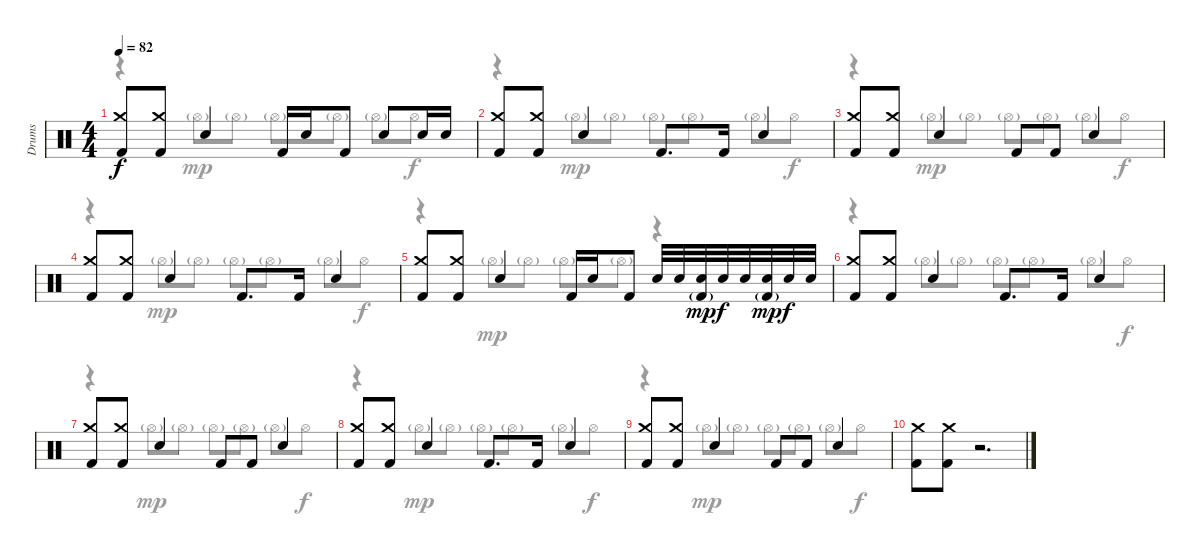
\track ("Drums" "Drums") {instrument percussion}
\staff {score}
\articulation defaults
\voice
\ts (4 4)
\tempo 82
\clef neutral
\ks c
("Crash medium (hit)" "Kick (hit) 2").8{dy f} ("Crash medium (hit)" "Kick (hit) 2").8 "Snare (hit) 2".4 "Kick (hit) 2".16 "Snare (hit) 2".16 "Kick (hit) 2".8 "Snare (hit) 2".8 "Snare (hit) 2".16 "Snare (hit) 2".16 |
("Crash medium (hit)" "Kick (hit) 2").8 ("Crash medium (hit)" "Kick (hit) 2").8 "Snare (hit) 2".4 "Kick (hit) 2".8{d} "Kick (hit) 2".16 "Snare (hit) 2".4 |
("Crash medium (hit)" "Kick (hit) 2").8 ("Crash medium (hit)" "Kick (hit) 2").8 "Snare (hit) 2".4 "Kick (hit) 2".8 "Kick (hit) 2".8 "Snare (hit) 2".4 |
("Crash medium (hit)" "Kick (hit) 2").8 ("Crash medium (hit)" "Kick (hit) 2").8 "Snare (hit) 2".4 "Kick (hit) 2".8{d} "Kick (hit) 2".16 "Snare (hit) 2".4 |
("Crash medium (hit)" "Kick (hit) 2").8 ("Crash medium (hit)" "Kick (hit) 2").8 "Snare (hit) 2".4 "Kick (hit) 2".16 "Snare (hit) 2".16 "Kick (hit) 2".8 "Snare (hit) 2".32 "Snare (hit) 2".32 ("Snare (hit) 2" "Kick (hit) 2"{g}).32{dy mp} "Snare (hit) 2".32{dy f} "Snare (hit) 2".32 ("Snare (hit) 2" "Kick (hit) 2"{g}).32{dy mp} "Snare (hit) 2".32{dy f} "Snare (hit) 2".32 |
("Crash medium (hit)" "Kick (hit) 2").8 ("Crash medium (hit)" "Kick (hit) 2").8 "Snare (hit) 2".4 "Kick (hit) 2".8{d} "Kick (hit) 2".16 "Snare (hit) 2".4 |
("Crash medium (hit)" "Kick (hit) 2").8 ("Crash medium (hit)" "Kick (hit) 2").8 "Snare (hit) 2".4 "Kick (hit) 2".8 "Kick (hit) 2".8 "Snare (hit) 2".4 |
("Crash medium (hit)" "Kick (hit) 2").8 ("Crash medium (hit)" "Kick (hit) 2").8 "Snare (hit) 2".4 "Kick (hit) 2".8{d} "Kick (hit) 2".16 "Snare (hit) 2".4 |
("Crash medium (hit)" "Kick (hit) 2").8 ("Crash medium (hit)" "Kick (hit) 2").8 "Snare (hit) 2".4 "Kick (hit) 2".8 "Kick (hit) 2".8 "Snare (hit) 2".4 |
("Crash medium (hit)" "Kick (hit) 2").8 ("Crash medium (hit)" "Kick (hit) 2").8 r.2{d} |
\voice
\clef neutral
\ottava regular
\simile none
\ks c
r.4{dy f} "Hi-Hat (open)"{g}.8{dy mp} "Hi-Hat (open)"{g}.8 "Hi-Hat (open)"{g}.8 "Hi-Hat (open)"{g}.8 "Hi-Hat (open)"{g}.8 "Hi-Hat (open)".8{dy f} |
r.4 "Hi-Hat (open)"{g}.8{dy mp} "Hi-Hat (open)"{g}.8 "Hi-Hat (open)"{g}.8 "Hi-Hat (open)"{g}.8 "Hi-Hat (open)"{g}.8 "Hi-Hat (open)".8{dy f} |
r.4 "Hi-Hat (open)"{g}.8{dy mp} "Hi-Hat (open)"{g}.8 "Hi-Hat (open)"{g}.8 "Hi-Hat (open)"{g}.8 "Hi-Hat (open)"{g}.8 "Hi-Hat (open)".8{dy f} |
r.4 "Hi-Hat (open)"{g}.8{dy mp} "Hi-Hat (open)"{g}.8 "Hi-Hat (open)"{g}.8 "Hi-Hat (open)"{g}.8 "Hi-Hat (open)"{g}.8 "Hi-Hat (open)".8{dy f} |
r.4 "Hi-Hat (open)"{g}.8{dy mp} "Hi-Hat (open)"{g}.8 "Hi-Hat (open)"{g}.8 "Hi-Hat (open)"{g}.8 r.4 |
r.4 "Hi-Hat (open)"{g}.8 "Hi-Hat (open)"{g}.8 "Hi-Hat (open)"{g}.8 "Hi-Hat (open)"{g}.8 "Hi-Hat (open)"{g}.8 "Hi-Hat (open)".8{dy f} |
r.4 "Hi-Hat (open)"{g}.8{dy mp} "Hi-Hat (open)"{g}.8 "Hi-Hat (open)"{g}.8 "Hi-Hat (open)"{g}.8 "Hi-Hat (open)"{g}.8 "Hi-Hat (open)".8{dy f} |
r.4 "Hi-Hat (open)"{g}.8{dy mp} "Hi-Hat (open)"{g}.8 "Hi-Hat (open)"{g}.8 "Hi-Hat (open)"{g}.8 "Hi-Hat (open)"{g}.8 "Hi-Hat (open)".8{dy f} |
r.4 "Hi-Hat (open)"{g}.8{dy mp} "Hi-Hat (open)"{g}.8 "Hi-Hat (open)"{g}.8 "Hi-Hat (open)"{g}.8 "Hi-Hat (open)"{g}.8 "Hi-Hat (open)".8{dy f} |
|
